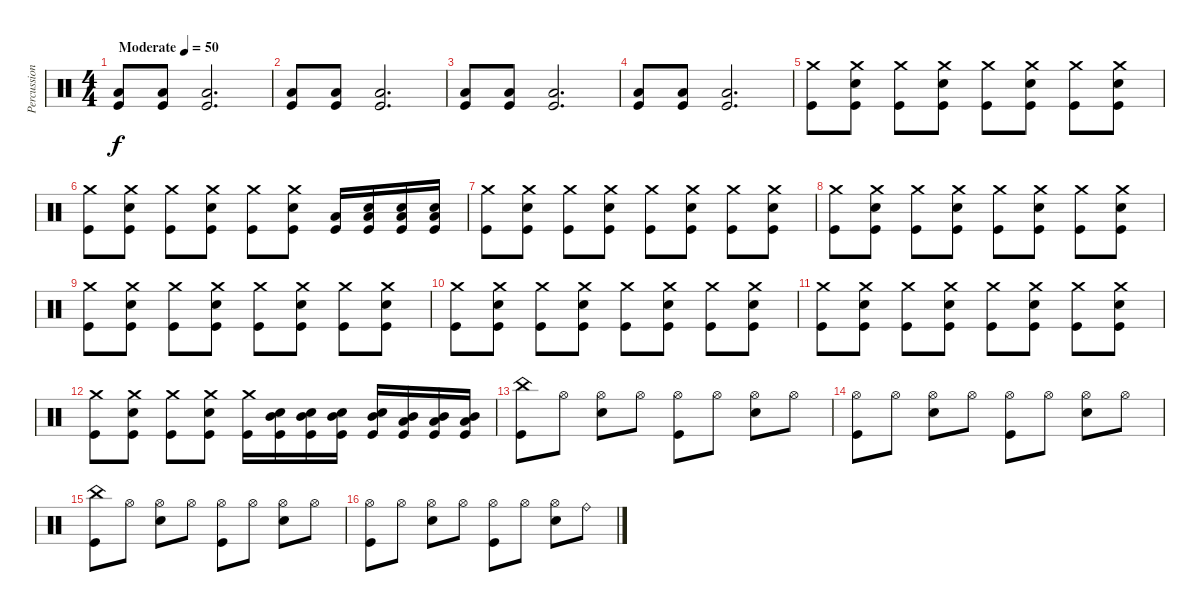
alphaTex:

\track ("Percussion" "Percussion") {instrument percussion}
\staff {score}
\articulation defaults
\ts (4 4)
\tempo (50 "Moderate")
\clef neutral
\ks c
("Low Floor Tom (hit)" "Kick (hit)").8{dy f} ("Low Floor Tom (hit)" "Kick (hit)").8 ("Low Floor Tom (hit)" "Kick (hit)").2{d} |
("Low Floor Tom (hit)" "Kick (hit)").8 ("Low Floor Tom (hit)" "Kick (hit)").8 ("Low Floor Tom (hit)" "Kick (hit)").2{d} |
("Low Floor Tom (hit)" "Kick (hit)").8 ("Low Floor Tom (hit)" "Kick (hit)").8 ("Low Floor Tom (hit)" "Kick (hit)").2{d} |
("Low Floor Tom (hit)" "Kick (hit)").8 ("Low Floor Tom (hit)" "Kick (hit)").8 ("Low Floor Tom (hit)" "Kick (hit)").2{d} |
("Crash medium (hit)" "Kick (hit)").8 ("Crash medium (hit)" "Snare (hit) 2" "Kick (hit)").8 ("Crash medium (hit)" "Kick (hit)").8 ("Crash medium (hit)" "Snare (hit) 2" "Kick (hit)").8 ("Crash medium (hit)" "Kick (hit)").8 ("Crash medium (hit)" "Snare (hit) 2" "Kick (hit)").8 ("Crash medium (hit)" "Kick (hit)").8 ("Crash medium (hit)" "Snare (hit) 2" "Kick (hit)").8 |
("Crash medium (hit)" "Kick (hit)").8 ("Crash medium (hit)" "Snare (hit) 2" "Kick (hit)").8 ("Crash medium (hit)" "Kick (hit)").8 ("Crash medium (hit)" "Snare (hit) 2" "Kick (hit)").8 ("Crash medium (hit)" "Kick (hit)").8 ("Crash medium (hit)" "Snare (hit) 2" "Kick (hit)").8 ("Low Tom (hit)" "Kick (hit)").16 ("Low Tom (hit)" "Snare (hit) 2" "Kick (hit)").16 ("Low Tom (hit)" "Snare (hit) 2" "Kick (hit)").16 ("Low Tom (hit)" "Snare (hit) 2" "Kick (hit)").16 |
("Crash medium (hit)" "Kick (hit)").8 ("Crash medium (hit)" "Snare (hit) 2" "Kick (hit)").8 ("Crash medium (hit)" "Kick (hit)").8 ("Crash medium (hit)" "Snare (hit) 2" "Kick (hit)").8 ("Crash medium (hit)" "Kick (hit)").8 ("Crash medium (hit)" "Snare (hit) 2" "Kick (hit)").8 ("Crash medium (hit)" "Kick (hit)").8 ("Crash medium (hit)" "Snare (hit) 2" "Kick (hit)").8 |
("Crash medium (hit)" "Kick (hit)").8 ("Crash medium (hit)" "Snare (hit) 2" "Kick (hit)").8 ("Crash medium (hit)" "Kick (hit)").8 ("Crash medium (hit)" "Snare (hit) 2" "Kick (hit)").8 ("Crash medium (hit)" "Kick (hit)").8 ("Crash medium (hit)" "Snare (hit) 2" "Kick (hit)").8 ("Crash medium (hit)" "Kick (hit)").8 ("Crash medium (hit)" "Snare (hit) 2" "Kick (hit)").8 |
("Crash medium (hit)" "Kick (hit)").8 ("Crash medium (hit)" "Snare (hit) 2" "Kick (hit)").8 ("Crash medium (hit)" "Kick (hit)").8 ("Crash medium (hit)" "Snare (hit) 2" "Kick (hit)").8 ("Crash medium (hit)" "Kick (hit)").8 ("Crash medium (hit)" "Snare (hit) 2" "Kick (hit)").8 ("Crash medium (hit)" "Kick (hit)").8 ("Crash medium (hit)" "Snare (hit) 2" "Kick (hit)").8 |
("Crash medium (hit)" "Kick (hit)").8 ("Crash medium (hit)" "Snare (hit) 2" "Kick (hit)").8 ("Crash medium (hit)" "Kick (hit)").8 ("Crash medium (hit)" "Snare (hit) 2" "Kick (hit)").8 ("Crash medium (hit)" "Kick (hit)").8 ("Crash medium (hit)" "Snare (hit) 2" "Kick (hit)").8 ("Crash medium (hit)" "Kick (hit)").8 ("Crash medium (hit)" "Snare (hit) 2" "Kick (hit)").8 |
("Crash medium (hit)" "Kick (hit)").8 ("Crash medium (hit)" "Snare (hit) 2" "Kick (hit)").8 ("Crash medium (hit)" "Kick (hit)").8 ("Crash medium (hit)" "Snare (hit) 2" "Kick (hit)").8 ("Crash medium (hit)" "Kick (hit)").8 ("Crash medium (hit)" "Snare (hit) 2" "Kick (hit)").8 ("Crash medium (hit)" "Kick (hit)").8 ("Crash medium (hit)" "Snare (hit) 2" "Kick (hit)").8 |
("Crash medium (hit)" "Kick (hit)").8 ("Crash medium (hit)" "Snare (hit) 2" "Kick (hit)").8 ("Crash medium (hit)" "Kick (hit)").8 ("Crash medium (hit)" "Snare (hit) 2" "Kick (hit)").8 ("Crash medium (hit)" "Kick (hit)").16 ("Mid Tom (hit)" "Snare (hit) 2" "Kick (hit)").16 ("Mid Tom (hit)" "Snare (hit) 2" "Kick (hit)").16 ("Mid Tom (hit)" "Snare (hit) 2" "Kick (hit)").16 ("Mid Tom (hit)" "Snare (hit) 2" "Kick (hit)").16 ("Mid Tom (hit)" "Low Tom (hit)" "Kick (hit)").16 ("Mid Tom (hit)" "Low Tom (hit)" "Kick (hit)").16 ("Mid Tom (hit)" "Low Tom (hit)" "Kick (hit)").16 |
("China (hit)" "Kick (hit)").8 "Hi-Hat (open)".8 ("Hi-Hat (open)" "Snare (hit) 2").8 "Hi-Hat (open)".8 ("Hi-Hat (open)" "Kick (hit)").8 "Hi-Hat (open)".8 ("Hi-Hat (open)" "Snare (hit) 2").8 "Hi-Hat (open)".8 |
("Hi-Hat (open)" "Kick (hit)").8 "Hi-Hat (open)".8 ("Hi-Hat (open)" "Snare (hit) 2").8 "Hi-Hat (open)".8 ("Hi-Hat (open)" "Kick (hit)").8 "Hi-Hat (open)".8 ("Hi-Hat (open)" "Snare (hit) 2").8 "Hi-Hat (open)".8 |
("China (hit)" "Kick (hit)").8 "Hi-Hat (open)".8 ("Hi-Hat (open)" "Snare (hit) 2").8 "Hi-Hat (open)".8 ("Hi-Hat (open)" "Kick (hit)").8 "Hi-Hat (open)".8 ("Hi-Hat (open)" "Snare (hit) 2").8 "Hi-Hat (open)".8 |
("Hi-Hat (open)" "Kick (hit)").8 "Hi-Hat (open)".8 ("Hi-Hat (open)" "Snare (hit) 2").8 "Hi-Hat (open)".8 ("Hi-Hat (open)" "Kick (hit)").8 "Hi-Hat (open)".8 ("Hi-Hat (open)" "Snare (hit) 2").8 "Ride (bell)".8
